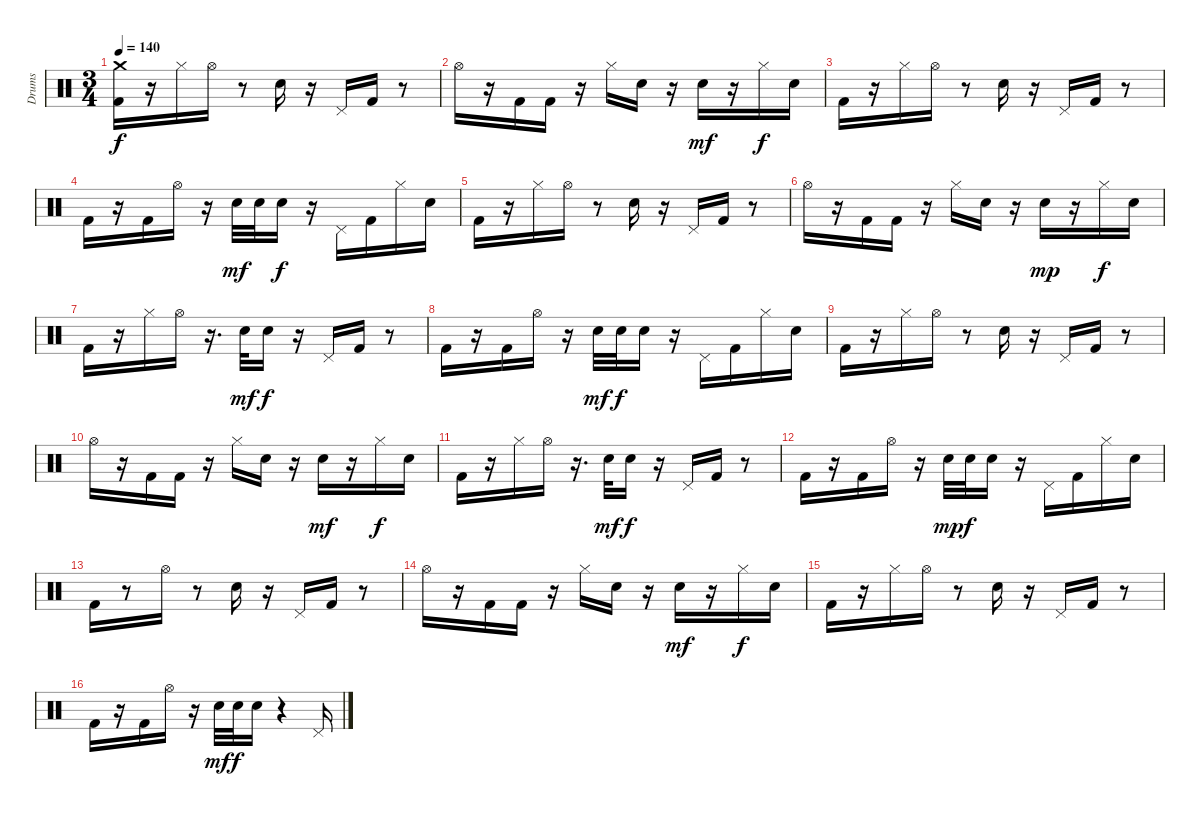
\track ("Drums" "Drums") {instrument percussion}
\staff {score}
\articulation defaults
\ts (3 4)
\tempo 140
\clef neutral
\ks c
("Crash medium (hit)" "Kick (hit) 2").16{dy f} r.16 "Hi-Hat (closed)".16 "Hi-Hat (open)".16 r.8 "Electric Snare (hit)".16 r.16 "Pedal Hi-Hat (hit)".16 "Kick (hit) 2".16 r.8 |
"Hi-Hat (open)".16 r.16 "Kick (hit) 2".16 "Kick (hit) 2".16 r.16 "Hi-Hat (closed)".16 "Electric Snare (hit)".16 r.16 "Electric Snare (hit)".16{dy mf} r.16 "Hi-Hat (closed)".16{dy f} "Electric Snare (hit)".16 |
"Kick (hit) 2".16 r.16 "Hi-Hat (closed)".16 "Hi-Hat (open)".16 r.8 "Electric Snare (hit)".16 r.16 "Pedal Hi-Hat (hit)".16 "Kick (hit) 2".16 r.8 |
"Kick (hit) 2".16 r.16 "Kick (hit) 2".16 "Hi-Hat (open)".16 r.16 "Electric Snare (hit)".32{dy mf} "Electric Snare (hit)".32 "Electric Snare (hit)".16{dy f} r.16 "Pedal Hi-Hat (hit)".16 "Kick (hit) 2".16 "Hi-Hat (closed)".16 "Electric Snare (hit)".16 |
"Kick (hit) 2".16 r.16 "Hi-Hat (closed)".16 "Hi-Hat (open)".16 r.8 "Electric Snare (hit)".16 r.16 "Pedal Hi-Hat (hit)".16 "Kick (hit) 2".16 r.8 |
"Hi-Hat (open)".16 r.16 "Kick (hit) 2".16 "Kick (hit) 2".16 r.16 "Hi-Hat (closed)".16 "Electric Snare (hit)".16 r.16 "Electric Snare (hit)".16{dy mp} r.16 "Hi-Hat (closed)".16{dy f} "Electric Snare (hit)".16 |
"Kick (hit) 2".16 r.16 "Hi-Hat (closed)".16 "Hi-Hat (open)".16 r.16{d} "Electric Snare (hit)".32{dy mf} "Electric Snare (hit)".16{dy f} r.16 "Pedal Hi-Hat (hit)".16 "Kick (hit) 2".16 r.8 |
"Kick (hit) 2".16 r.16 "Kick (hit) 2".16 "Hi-Hat (open)".16 r.16 "Electric Snare (hit)".32{dy mf} "Electric Snare (hit)".32{dy f} "Electric Snare (hit)".16 r.16 "Pedal Hi-Hat (hit)".16 "Kick (hit) 2".16 "Hi-Hat (closed)".16 "Electric Snare (hit)".16 |
"Kick (hit) 2".16 r.16 "Hi-Hat (closed)".16 "Hi-Hat (open)".16 r.8 "Electric Snare (hit)".16 r.16 "Pedal Hi-Hat (hit)".16 "Kick (hit) 2".16 r.8 |
"Hi-Hat (open)".16 r.16 "Kick (hit) 2".16 "Kick (hit) 2".16 r.16 "Hi-Hat (closed)".16 "Electric Snare (hit)".16 r.16 "Electric Snare (hit)".16{dy mf} r.16 "Hi-Hat (closed)".16{dy f} "Electric Snare (hit)".16 |
"Kick (hit) 2".16 r.16 "Hi-Hat (closed)".16 "Hi-Hat (open)".16 r.16{d} "Electric Snare (hit)".32{dy mf} "Electric Snare (hit)".16{dy f} r.16 "Pedal Hi-Hat (hit)".16 "Kick (hit) 2".16 r.8 |
"Kick (hit) 2".16 r.16 "Kick (hit) 2".16 "Hi-Hat (open)".16 r.16 "Electric Snare (hit)".32{dy mp} "Electric Snare (hit)".32{dy f} "Electric Snare (hit)".16 r.16 "Pedal Hi-Hat (hit)".16 "Kick (hit) 2".16 "Hi-Hat (closed)".16 "Electric Snare (hit)".16 |
"Kick (hit) 2".16 r.8 "Hi-Hat (open)".16 r.8 "Electric Snare (hit)".16 r.16 "Pedal Hi-Hat (hit)".16 "Kick (hit) 2".16 r.8 |
"Hi-Hat (open)".16 r.16 "Kick (hit) 2".16 "Kick (hit) 2".16 r.16 "Hi-Hat (closed)".16 "Electric Snare (hit)".16 r.16 "Electric Snare (hit)".16{dy mf} r.16 "Hi-Hat (closed)".16{dy f} "Electric Snare (hit)".16 |
"Kick (hit) 2".16 r.16 "Hi-Hat (closed)".16 "Hi-Hat (open)".16 r.8 "Electric Snare (hit)".16 r.16 "Pedal Hi-Hat (hit)".16 "Kick (hit) 2".16 r.8 |
"Kick (hit) 2".16 r.16 "Kick (hit) 2".16 "Hi-Hat (open)".16 r.16 "Electric Snare (hit)".32{dy mf} "Electric Snare (hit)".32{dy f} "Electric Snare (hit)".16 r.4 "Pedal Hi-Hat (hit)".16
